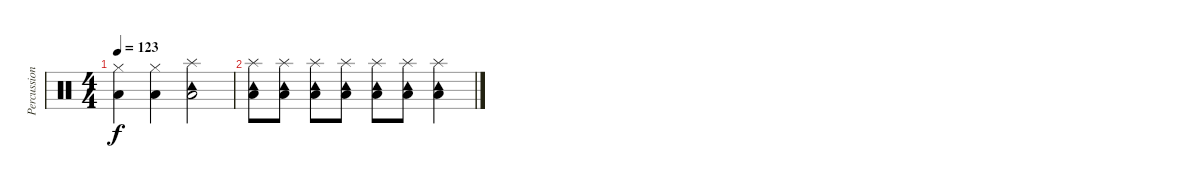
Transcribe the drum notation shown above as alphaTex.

\track ("Percussion" "Percussion") {instrument percussion}
\staff {score}
\articulation defaults
\ts (4 4)
\tempo 123
\clef neutral
\ks c
("Low Floor Tom (hit)" "Hi-Hat (closed)").4{dy f} ("Low Floor Tom (hit)" "Hi-Hat (closed)").4 ("Splash (hit)" "Low Floor Tom (hit)" "Tambourine (hit)").2 |
("Splash (hit)" "Low Floor Tom (hit)" "Tambourine (hit)").8 ("Splash (hit)" "Low Floor Tom (hit)" "Tambourine (hit)").8 ("Splash (hit)" "Low Floor Tom (hit)" "Tambourine (hit)").8 ("Splash (hit)" "Low Floor Tom (hit)" "Tambourine (hit)").8 ("Splash (hit)" "Low Floor Tom (hit)" "Tambourine (hit)").8 ("Splash (hit)" "Low Floor Tom (hit)" "Tambourine (hit)").8 ("Splash (hit)" "Low Floor Tom (hit)" "Tambourine (hit)").4
